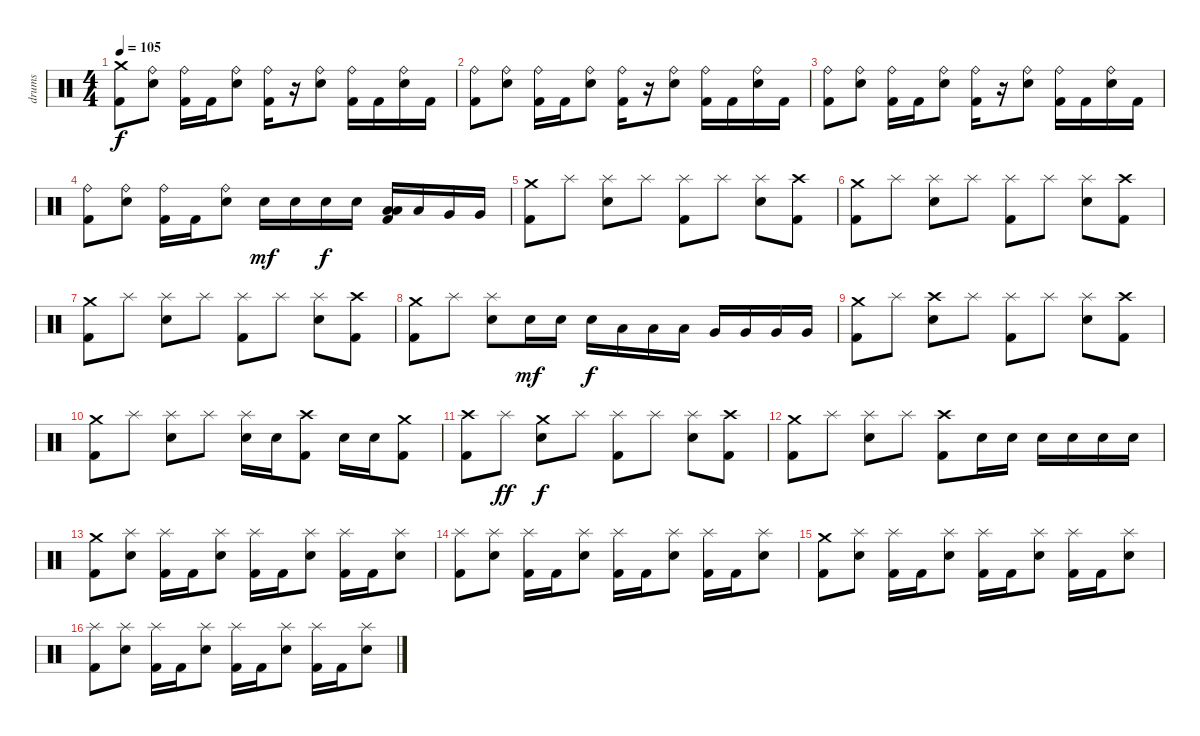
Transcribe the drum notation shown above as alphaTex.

\track ("drums" "drums") {instrument percussion}
\staff {score}
\articulation defaults
\ts (4 4)
\tempo 105
\clef neutral
\ks c
("Crash medium (hit)" "Kick (hit) 2").8{dy f} ("Ride (bell)" "Electric Snare (hit)").8 ("Ride (bell)" "Kick (hit) 2").16 "Kick (hit) 2".16 ("Ride (bell)" "Electric Snare (hit)").8 ("Ride (bell)" "Kick (hit) 2").16 r.16 ("Ride (bell)" "Electric Snare (hit)").8 ("Ride (bell)" "Kick (hit) 2").16 "Kick (hit) 2".16 ("Ride (bell)" "Electric Snare (hit)").16 "Kick (hit) 2".16 |
("Ride (bell)" "Kick (hit) 2").8 ("Ride (bell)" "Electric Snare (hit)").8 ("Ride (bell)" "Kick (hit) 2").16 "Kick (hit) 2".16 ("Ride (bell)" "Electric Snare (hit)").8 ("Ride (bell)" "Kick (hit) 2").16 r.16 ("Ride (bell)" "Electric Snare (hit)").8 ("Ride (bell)" "Kick (hit) 2").16 "Kick (hit) 2".16 ("Ride (bell)" "Electric Snare (hit)").16 "Kick (hit) 2".16 |
("Ride (bell)" "Kick (hit) 2").8 ("Ride (bell)" "Electric Snare (hit)").8 ("Ride (bell)" "Kick (hit) 2").16 "Kick (hit) 2".16 ("Ride (bell)" "Electric Snare (hit)").8 ("Ride (bell)" "Kick (hit) 2").16 r.16 ("Ride (bell)" "Electric Snare (hit)").8 ("Ride (bell)" "Kick (hit) 2").16 "Kick (hit) 2".16 ("Ride (bell)" "Electric Snare (hit)").16 "Kick (hit) 2".16 |
("Ride (bell)" "Kick (hit) 2").8 ("Ride (bell)" "Electric Snare (hit)").8 ("Ride (bell)" "Kick (hit) 2").16 "Kick (hit) 2".16 ("Ride (bell)" "Electric Snare (hit)").8 "Electric Snare (hit)".16{dy mf} "Electric Snare (hit)".16 "Electric Snare (hit)".16{dy f} "Electric Snare (hit)".16 ("Low Floor Tom (hit)" "Low Tom (hit)" "Kick (hit) 2").16 "Low Tom (hit)".16 "Very Low Tom (hit)".16 "Very Low Tom (hit)".16 |
("Crash medium (hit)" "Kick (hit) 2").8 "Splash (hit)".8 ("Splash (hit)" "Electric Snare (hit)").8 "Splash (hit)".8 ("Splash (hit)" "Kick (hit) 2").8 "Splash (hit)".8 ("Splash (hit)" "Electric Snare (hit)").8 ("Crash high (hit)" "Kick (hit) 2").8 |
("Crash medium (hit)" "Kick (hit) 2").8 "Splash (hit)".8 ("Splash (hit)" "Electric Snare (hit)").8 "Splash (hit)".8 ("Splash (hit)" "Kick (hit) 2").8 "Splash (hit)".8 ("Splash (hit)" "Electric Snare (hit)").8 ("Crash high (hit)" "Kick (hit) 2").8 |
("Crash medium (hit)" "Kick (hit) 2").8 "Splash (hit)".8 ("Splash (hit)" "Electric Snare (hit)").8 "Splash (hit)".8 ("Splash (hit)" "Kick (hit) 2").8 "Splash (hit)".8 ("Splash (hit)" "Electric Snare (hit)").8 ("Crash high (hit)" "Kick (hit) 2").8 |
("Crash medium (hit)" "Kick (hit) 2").8 "Splash (hit)".8 ("Splash (hit)" "Electric Snare (hit)").8 "Electric Snare (hit)".16{dy mf} "Electric Snare (hit)".16 "Electric Snare (hit)".16{dy f} "Low Tom (hit)".16 "Low Tom (hit)".16 "Low Tom (hit)".16 "Very Low Tom (hit)".16 "Very Low Tom (hit)".16 "Very Low Tom (hit)".16 "Very Low Tom (hit)".16 |
("Crash medium (hit)" "Kick (hit) 2").8 "Splash (hit)".8 ("Crash high (hit)" "Electric Snare (hit)").8 "Splash (hit)".8 ("Splash (hit)" "Kick (hit) 2").8 "Splash (hit)".8 ("Splash (hit)" "Electric Snare (hit)").8 ("Crash high (hit)" "Kick (hit) 2").8 |
("Crash medium (hit)" "Kick (hit) 2").8 "Splash (hit)".8 ("Splash (hit)" "Electric Snare (hit)").8 "Splash (hit)".8 ("Splash (hit)" "Electric Snare (hit)").16 "Electric Snare (hit)".16 ("Crash high (hit)" "Kick (hit) 2").8 "Electric Snare (hit)".16 "Electric Snare (hit)".16 ("Crash medium (hit)" "Kick (hit) 2").8 |
("Crash high (hit)" "Kick (hit) 2").8 "Splash (hit)".8{dy ff} ("Crash medium (hit)" "Electric Snare (hit)").8{dy f} "Splash (hit)".8 ("Splash (hit)" "Kick (hit) 2").8 "Splash (hit)".8 ("Splash (hit)" "Electric Snare (hit)").8 ("Crash high (hit)" "Kick (hit) 2").8 |
("Crash medium (hit)" "Kick (hit) 2").8 "Splash (hit)".8 ("Splash (hit)" "Electric Snare (hit)").8 "Splash (hit)".8 ("Crash high (hit)" "Kick (hit) 2").8 "Electric Snare (hit)".16 "Electric Snare (hit)".16 "Electric Snare (hit)".16 "Electric Snare (hit)".16 "Electric Snare (hit)".16 "Electric Snare (hit)".16 |
("Crash medium (hit)" "Kick (hit) 2").8 ("Splash (hit)" "Electric Snare (hit)").8 ("Splash (hit)" "Kick (hit) 2").16 "Kick (hit) 2".16 ("Splash (hit)" "Electric Snare (hit)").8 ("Splash (hit)" "Kick (hit) 2").16 "Kick (hit) 2".16 ("Splash (hit)" "Electric Snare (hit)").8 ("Splash (hit)" "Kick (hit) 2").16 "Kick (hit) 2".16 ("Splash (hit)" "Electric Snare (hit)").8 |
("Splash (hit)" "Kick (hit) 2").8 ("Splash (hit)" "Electric Snare (hit)").8 ("Splash (hit)" "Kick (hit) 2").16 "Kick (hit) 2".16 ("Splash (hit)" "Electric Snare (hit)").8 ("Splash (hit)" "Kick (hit) 2").16 "Kick (hit) 2".16 ("Splash (hit)" "Electric Snare (hit)").8 ("Splash (hit)" "Kick (hit) 2").16 "Kick (hit) 2".16 ("Splash (hit)" "Electric Snare (hit)").8 |
("Crash medium (hit)" "Kick (hit) 2").8 ("Splash (hit)" "Electric Snare (hit)").8 ("Splash (hit)" "Kick (hit) 2").16 "Kick (hit) 2".16 ("Splash (hit)" "Electric Snare (hit)").8 ("Splash (hit)" "Kick (hit) 2").16 "Kick (hit) 2".16 ("Splash (hit)" "Electric Snare (hit)").8 ("Splash (hit)" "Kick (hit) 2").16 "Kick (hit) 2".16 ("Splash (hit)" "Electric Snare (hit)").8 |
("Splash (hit)" "Kick (hit) 2").8 ("Splash (hit)" "Electric Snare (hit)").8 ("Splash (hit)" "Kick (hit) 2").16 "Kick (hit) 2".16 ("Splash (hit)" "Electric Snare (hit)").8 ("Splash (hit)" "Kick (hit) 2").16 "Kick (hit) 2".16 ("Splash (hit)" "Electric Snare (hit)").8 ("Splash (hit)" "Kick (hit) 2").16 "Kick (hit) 2".16 ("Splash (hit)" "Electric Snare (hit)").8
